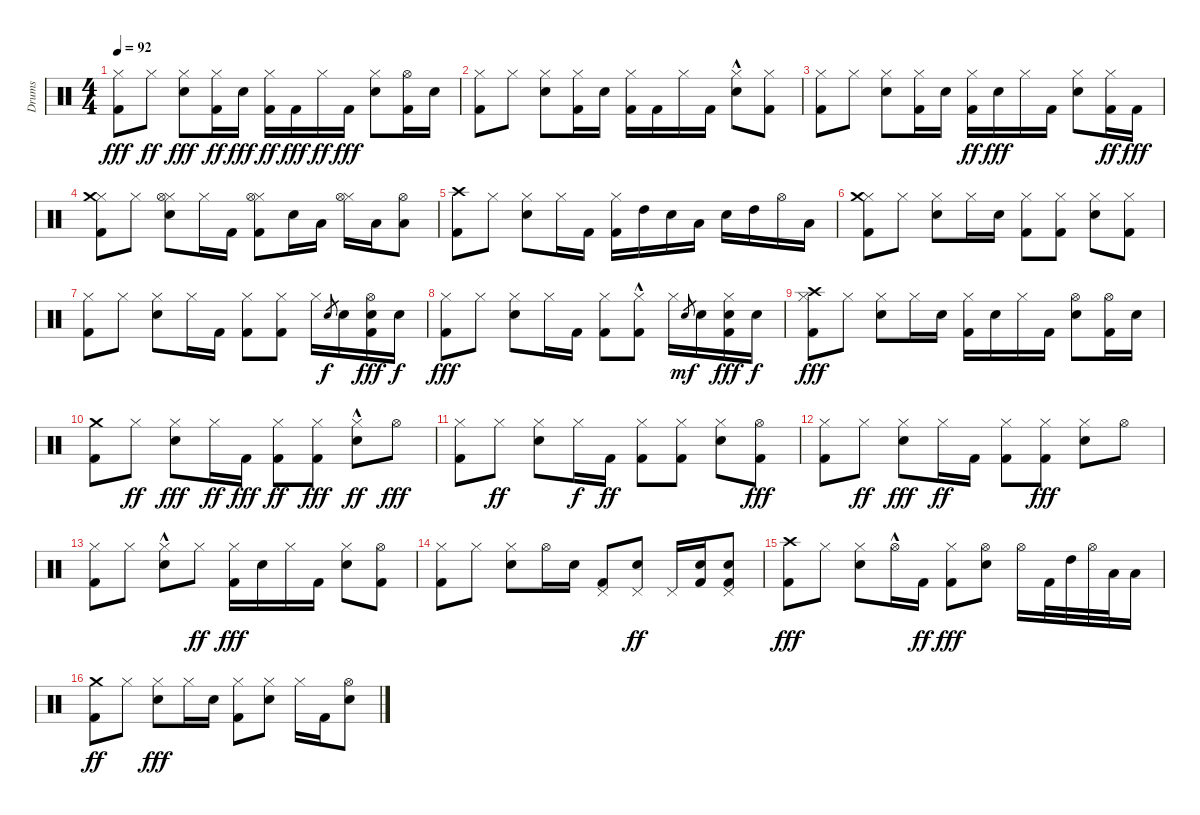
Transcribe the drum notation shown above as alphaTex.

\track ("Drums" "Drums") {instrument percussion}
\staff {score}
\articulation defaults
\ts (4 4)
\tempo 92
\clef neutral
\ks c
("Kick (hit) 2" "Hi-Hat (closed)").8{dy fff} "Hi-Hat (closed)".8{dy ff} ("Snare (hit) 2" "Hi-Hat (closed)").8{dy fff} ("Kick (hit) 2" "Hi-Hat (closed)").16{dy ff} "Snare (hit) 2".16{dy fff} ("Kick (hit) 2" "Hi-Hat (closed)").16{dy ff} "Kick (hit) 2".16{dy fff} "Hi-Hat (closed)".16{dy ff} "Kick (hit) 2".16{dy fff} ("Snare (hit) 2" "Hi-Hat (closed)").8 ("Kick (hit) 2" "Hi-Hat (open)").16 "Snare (hit) 2".16 |
("Kick (hit) 2" "Hi-Hat (closed)").8 "Hi-Hat (closed)".8 ("Snare (hit) 2" "Hi-Hat (closed)").8 ("Kick (hit) 2" "Hi-Hat (closed)").16 "Snare (hit) 2".16 ("Kick (hit) 2" "Hi-Hat (closed)").16 "Kick (hit) 2".16 "Hi-Hat (closed)".16 "Kick (hit) 2".16 ("Snare (hit) 2"{hac} "Hi-Hat (closed)").8 ("Kick (hit) 2" "Hi-Hat (closed)").8 |
("Kick (hit) 2" "Hi-Hat (closed)").8 "Hi-Hat (closed)".8 ("Snare (hit) 2" "Hi-Hat (closed)").8 ("Kick (hit) 2" "Hi-Hat (closed)").16 "Snare (hit) 2".16 ("Kick (hit) 2" "Hi-Hat (closed)").16{dy ff} "Snare (hit) 2".16{dy fff} "Hi-Hat (closed)".16 "Kick (hit) 2".16 ("Snare (hit) 2" "Hi-Hat (closed)").8 ("Kick (hit) 2" "Hi-Hat (closed)").16{dy ff} "Kick (hit) 2".16{dy fff} |
("Kick (hit) 2" "Hi-Hat (closed)" "Crash medium (hit)").8 "Hi-Hat (closed)".8 ("Snare (hit) 2" "Hi-Hat (closed)" "Hi-Hat (open)").8 "Hi-Hat (closed)".16 "Kick (hit) 2".16 ("Kick (hit) 2" "Hi-Hat (closed)" "Hi-Hat (open)").8 "Snare (hit) 2".16 "Low Floor Tom (hit)".16 ("Hi-Hat (closed)" "Hi-Hat (open)").16 "Low Tom (hit)".16 ("Hi-Hat (open)" "Low Floor Tom (hit)").8 |
("Kick (hit) 2" "Crash high (hit)").8 "Hi-Hat (closed)".8 ("Snare (hit) 2" "Hi-Hat (closed)").8 "Hi-Hat (closed)".16 "Kick (hit) 2".16 ("Kick (hit) 2" "Hi-Hat (closed)").16 "High Tom (hit)".16 "Snare (hit) 2".16 "Low Floor Tom (hit)".16 "Snare (hit) 2".16 "High Tom (hit)".16 "Hi-Hat (open)".16 "Low Floor Tom (hit)".16 |
("Kick (hit) 2" "Hi-Hat (closed)" "Crash medium (hit)").8 "Hi-Hat (closed)".8 ("Snare (hit) 2" "Hi-Hat (closed)").8 "Hi-Hat (closed)".16 "Snare (hit) 2".16 ("Kick (hit) 2" "Hi-Hat (closed)").8 ("Kick (hit) 2" "Hi-Hat (closed)").8 ("Snare (hit) 2" "Hi-Hat (closed)").8 ("Kick (hit) 2" "Hi-Hat (closed)").8 |
("Kick (hit) 2" "Hi-Hat (closed)").8 "Hi-Hat (closed)".8 ("Snare (hit) 2" "Hi-Hat (closed)").8 "Hi-Hat (closed)".16 "Kick (hit) 2".16 ("Kick (hit) 2" "Hi-Hat (closed)").8 ("Kick (hit) 2" "Hi-Hat (closed)").8 "Hi-Hat (closed)".16 "Snare (hit) 2".8{gr dy f} "Snare (hit) 2".16 ("Snare (hit) 2" "Kick (hit) 2" "Hi-Hat (open)").16{dy fff} "Snare (hit) 2".16{dy f} |
("Kick (hit) 2" "Hi-Hat (closed)").8{dy fff} "Hi-Hat (closed)".8 ("Snare (hit) 2" "Hi-Hat (closed)").8 "Hi-Hat (closed)".16 "Kick (hit) 2".16 ("Kick (hit) 2" "Hi-Hat (closed)").8 ("Kick (hit) 2"{hac} "Hi-Hat (closed)").8 "Hi-Hat (closed)".16 "Snare (hit) 2".8{gr dy mf} "Snare (hit) 2".16 ("Snare (hit) 2" "Kick (hit) 2" "Hi-Hat (closed)").16{dy fff} "Snare (hit) 2".16{dy f} |
("Kick (hit) 2" "Hi-Hat (closed)" "Crash high (hit)").8{dy fff} "Hi-Hat (closed)".8 ("Snare (hit) 2" "Hi-Hat (closed)").8 "Hi-Hat (closed)".16 "Snare (hit) 2".16 ("Kick (hit) 2" "Hi-Hat (closed)").16 "Snare (hit) 2".16 "Hi-Hat (closed)".16 "Kick (hit) 2".16 ("Snare (hit) 2" "Hi-Hat (open)").8 ("Kick (hit) 2" "Hi-Hat (open)").16 "Snare (hit) 2".16 |
("Kick (hit) 2" "Crash medium (hit)").8 "Hi-Hat (closed)".8{dy ff} ("Snare (hit) 2" "Hi-Hat (closed)").8{dy fff} "Hi-Hat (closed)".16{dy ff} "Kick (hit) 2".16{dy fff} ("Kick (hit) 2" "Hi-Hat (closed)").8{dy ff} ("Kick (hit) 2" "Hi-Hat (closed)").8{dy fff} ("Snare (hit) 2"{hac} "Hi-Hat (closed)").8{dy ff} "Hi-Hat (open)".8{dy fff} |
("Kick (hit) 2" "Hi-Hat (closed)").8 "Hi-Hat (closed)".8{dy ff} ("Snare (hit) 2" "Hi-Hat (closed)").8 "Hi-Hat (closed)".16{dy f} "Kick (hit) 2".16{dy ff} ("Kick (hit) 2" "Hi-Hat (closed)").8 ("Kick (hit) 2" "Hi-Hat (closed)").8 ("Snare (hit) 2" "Hi-Hat (closed)").8 ("Kick (hit) 2" "Hi-Hat (open)").8{dy fff} |
("Kick (hit) 2" "Hi-Hat (closed)").8 "Hi-Hat (closed)".8{dy ff} ("Snare (hit) 2" "Hi-Hat (closed)").8{dy fff} "Hi-Hat (closed)".16{dy ff} "Kick (hit) 2".16 ("Kick (hit) 2" "Hi-Hat (closed)").8 ("Kick (hit) 2" "Hi-Hat (closed)").8{dy fff} ("Snare (hit) 2" "Hi-Hat (closed)").8 "Hi-Hat (open)".8 |
("Kick (hit) 2" "Hi-Hat (closed)").8 "Hi-Hat (closed)".8 ("Snare (hit) 2"{hac} "Hi-Hat (closed)").8 "Hi-Hat (closed)".8{dy ff} ("Kick (hit) 2" "Hi-Hat (closed)").16{dy fff} "Snare (hit) 2".16 "Hi-Hat (closed)".16 "Kick (hit) 2".16 ("Snare (hit) 2" "Hi-Hat (closed)").8 ("Kick (hit) 2" "Hi-Hat (open)").8 |
("Kick (hit) 2" "Hi-Hat (closed)").8 "Hi-Hat (closed)".8 ("Snare (hit) 2" "Hi-Hat (closed)").8 "Hi-Hat (open)".16 "Snare (hit) 2".16 ("Kick (hit) 2" "Pedal Hi-Hat (hit)").8 ("Snare (hit) 2" "Pedal Hi-Hat (hit)").8{dy ff} "Pedal Hi-Hat (hit)".16 ("Kick (hit) 2" "Snare (hit) 2").16 ("Kick (hit) 2" "Snare (hit) 2" "Pedal Hi-Hat (hit)").8 |
("Kick (hit) 2" "Crash high (hit)").8{dy fff} "Hi-Hat (closed)".8 ("Snare (hit) 2" "Hi-Hat (closed)").8 "Hi-Hat (open)"{hac}.16 "Kick (hit) 2".16{dy ff} ("Kick (hit) 2" "Hi-Hat (closed)").8{dy fff} ("Snare (hit) 2" "Hi-Hat (open)").8 "Hi-Hat (open)".16 "Kick (hit) 2".32 "High Tom (hit)".32 "Hi-Hat (open)".32 "Low Tom (hit)".32 "Low Floor Tom (hit)".16 |
("Kick (hit) 2" "Crash medium (hit)").8{dy ff} "Hi-Hat (closed)".8 ("Snare (hit) 2" "Hi-Hat (closed)").8{dy fff} "Hi-Hat (closed)".16 "Snare (hit) 2".16 ("Kick (hit) 2" "Hi-Hat (closed)").8 ("Snare (hit) 2" "Hi-Hat (closed)").8 "Hi-Hat (closed)".16 "Kick (hit) 2".16 ("Snare (hit) 2" "Hi-Hat (open)").8
